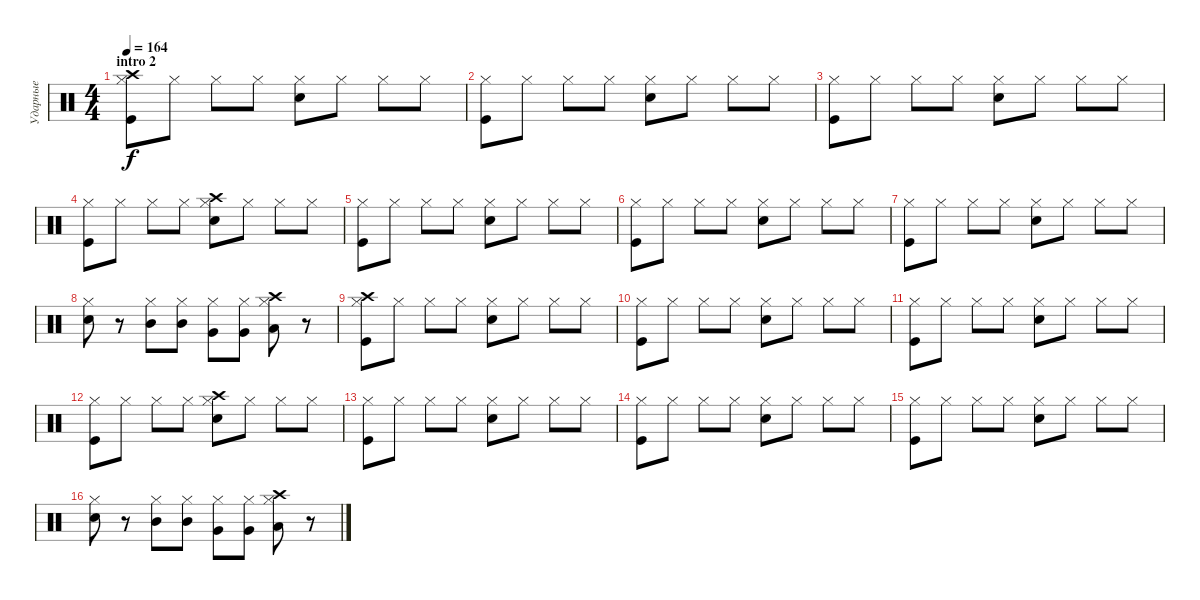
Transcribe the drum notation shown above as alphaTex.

\track ("Ударные" "Ударные") {instrument percussion}
\staff {score}
\articulation defaults
\ts (4 4)
\section ("" "intro 2")
\tempo 164
\clef neutral
\ks c
("Hi-Hat (closed)" "Crash high (hit)" "Kick (hit)").8{dy f} "Hi-Hat (closed)".8 "Hi-Hat (closed)".8 "Hi-Hat (closed)".8 ("Hi-Hat (closed)" "Snare (hit) 2").8 "Hi-Hat (closed)".8 "Hi-Hat (closed)".8 "Hi-Hat (closed)".8 |
("Hi-Hat (closed)" "Kick (hit)").8 "Hi-Hat (closed)".8 "Hi-Hat (closed)".8 "Hi-Hat (closed)".8 ("Hi-Hat (closed)" "Snare (hit) 2").8 "Hi-Hat (closed)".8 "Hi-Hat (closed)".8 "Hi-Hat (closed)".8 |
("Hi-Hat (closed)" "Kick (hit)").8 "Hi-Hat (closed)".8 "Hi-Hat (closed)".8 "Hi-Hat (closed)".8 ("Hi-Hat (closed)" "Snare (hit) 2").8 "Hi-Hat (closed)".8 "Hi-Hat (closed)".8 "Hi-Hat (closed)".8 |
("Hi-Hat (closed)" "Kick (hit)").8 "Hi-Hat (closed)".8 "Hi-Hat (closed)".8 "Hi-Hat (closed)".8 ("Hi-Hat (closed)" "Crash high (hit)" "Snare (hit) 2").8 "Hi-Hat (closed)".8 "Hi-Hat (closed)".8 "Hi-Hat (closed)".8 |
("Hi-Hat (closed)" "Kick (hit)").8 "Hi-Hat (closed)".8 "Hi-Hat (closed)".8 "Hi-Hat (closed)".8 ("Hi-Hat (closed)" "Snare (hit) 2").8 "Hi-Hat (closed)".8 "Hi-Hat (closed)".8 "Hi-Hat (closed)".8 |
("Hi-Hat (closed)" "Kick (hit)").8 "Hi-Hat (closed)".8 "Hi-Hat (closed)".8 "Hi-Hat (closed)".8 ("Hi-Hat (closed)" "Snare (hit) 2").8 "Hi-Hat (closed)".8 "Hi-Hat (closed)".8 "Hi-Hat (closed)".8 |
("Hi-Hat (closed)" "Kick (hit)").8 "Hi-Hat (closed)".8 "Hi-Hat (closed)".8 "Hi-Hat (closed)".8 ("Hi-Hat (closed)" "Snare (hit) 2").8 "Hi-Hat (closed)".8 "Hi-Hat (closed)".8 "Hi-Hat (closed)".8 |
("Hi-Hat (closed)" "Snare (hit) 2").8 r.8 ("Hi-Hat (closed)" "Mid Tom (hit)").8 ("Hi-Hat (closed)" "Mid Tom (hit)").8 ("Hi-Hat (closed)" "Very Low Tom (hit)").8 ("Hi-Hat (closed)" "Very Low Tom (hit)").8 ("Hi-Hat (closed)" "Crash high (hit)" "Low Floor Tom (hit)").8 r.8 |
("Hi-Hat (closed)" "Crash high (hit)" "Kick (hit)").8 "Hi-Hat (closed)".8 "Hi-Hat (closed)".8 "Hi-Hat (closed)".8 ("Hi-Hat (closed)" "Snare (hit) 2").8 "Hi-Hat (closed)".8 "Hi-Hat (closed)".8 "Hi-Hat (closed)".8 |
("Hi-Hat (closed)" "Kick (hit)").8 "Hi-Hat (closed)".8 "Hi-Hat (closed)".8 "Hi-Hat (closed)".8 ("Hi-Hat (closed)" "Snare (hit) 2").8 "Hi-Hat (closed)".8 "Hi-Hat (closed)".8 "Hi-Hat (closed)".8 |
("Hi-Hat (closed)" "Kick (hit)").8 "Hi-Hat (closed)".8 "Hi-Hat (closed)".8 "Hi-Hat (closed)".8 ("Hi-Hat (closed)" "Snare (hit) 2").8 "Hi-Hat (closed)".8 "Hi-Hat (closed)".8 "Hi-Hat (closed)".8 |
("Hi-Hat (closed)" "Kick (hit)").8 "Hi-Hat (closed)".8 "Hi-Hat (closed)".8 "Hi-Hat (closed)".8 ("Hi-Hat (closed)" "Crash high (hit)" "Snare (hit) 2").8 "Hi-Hat (closed)".8 "Hi-Hat (closed)".8 "Hi-Hat (closed)".8 |
("Hi-Hat (closed)" "Kick (hit)").8 "Hi-Hat (closed)".8 "Hi-Hat (closed)".8 "Hi-Hat (closed)".8 ("Hi-Hat (closed)" "Snare (hit) 2").8 "Hi-Hat (closed)".8 "Hi-Hat (closed)".8 "Hi-Hat (closed)".8 |
("Hi-Hat (closed)" "Kick (hit)").8 "Hi-Hat (closed)".8 "Hi-Hat (closed)".8 "Hi-Hat (closed)".8 ("Hi-Hat (closed)" "Snare (hit) 2").8 "Hi-Hat (closed)".8 "Hi-Hat (closed)".8 "Hi-Hat (closed)".8 |
("Hi-Hat (closed)" "Kick (hit)").8 "Hi-Hat (closed)".8 "Hi-Hat (closed)".8 "Hi-Hat (closed)".8 ("Hi-Hat (closed)" "Snare (hit) 2").8 "Hi-Hat (closed)".8 "Hi-Hat (closed)".8 "Hi-Hat (closed)".8 |
("Hi-Hat (closed)" "Snare (hit) 2").8 r.8 ("Hi-Hat (closed)" "Mid Tom (hit)").8 ("Hi-Hat (closed)" "Mid Tom (hit)").8 ("Hi-Hat (closed)" "Very Low Tom (hit)").8 ("Hi-Hat (closed)" "Very Low Tom (hit)").8 ("Hi-Hat (closed)" "Crash high (hit)" "Low Floor Tom (hit)").8 r.8
